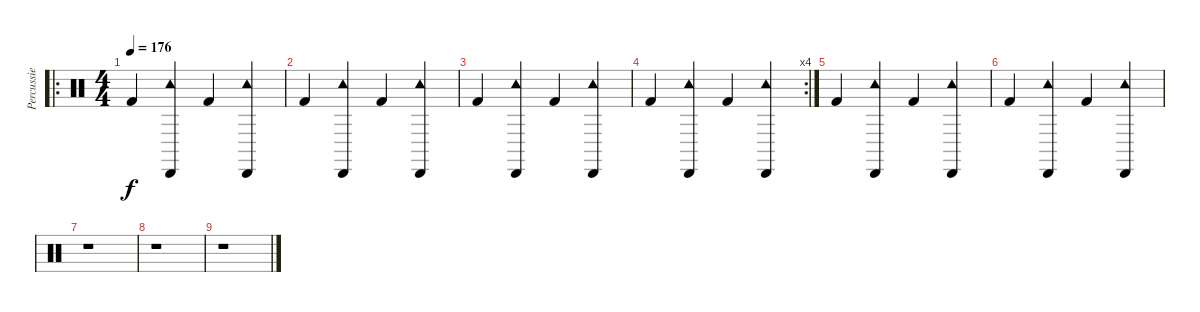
\track ("Percussie" "Percussie") {instrument percussion}
\staff {score}
\articulation defaults
\ro
\ts (4 4)
\tempo 176
\clef neutral
\ks c "Kick (hit) 2".4{dy f}
("Cabasa (hit)" "Tambourine (hit)").4 "Kick (hit) 2".4 ("Cabasa (hit)" "Tambourine (hit)").4 |
"Kick (hit) 2".4 ("Cabasa (hit)" "Tambourine (hit)").4 "Kick (hit) 2".4 ("Cabasa (hit)" "Tambourine (hit)").4 |
"Kick (hit) 2".4 ("Cabasa (hit)" "Tambourine (hit)").4 "Kick (hit) 2".4 ("Cabasa (hit)" "Tambourine (hit)").4 |
\rc 4 "Kick (hit) 2".4
("Cabasa (hit)" "Tambourine (hit)").4 "Kick (hit) 2".4 ("Cabasa (hit)" "Tambourine (hit)").4 |
"Kick (hit) 2".4 ("Cabasa (hit)" "Tambourine (hit)").4 "Kick (hit) 2".4 ("Cabasa (hit)" "Tambourine (hit)").4 |
"Kick (hit) 2".4 ("Cabasa (hit)" "Tambourine (hit)").4 "Kick (hit) 2".4 ("Cabasa (hit)" "Tambourine (hit)").4 |
r.1 |
r.1 |
r.1
